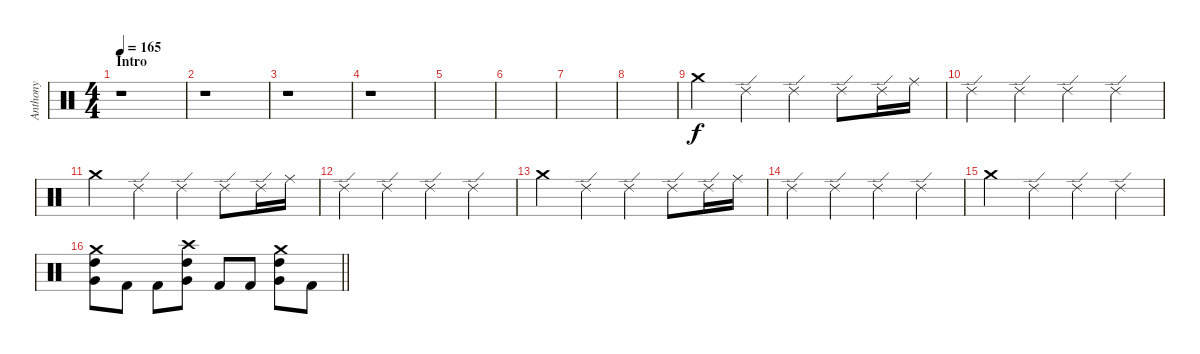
\track ("Anthony" "Anthony") {instrument percussion}
\staff {score}
\articulation defaults
\ts (4 4)
\section ("" "Intro")
\tempo 165
\clef neutral
\ks c
r.1{dy f} |
r.1 |
r.1 |
r.1 |
|
|
|
|
"Crash medium (hit)".4 "Ride (edge) 2".4 "Ride (edge) 2".4 "Ride (edge) 2".8 "Ride (edge) 2".16 "Ride (middle)".16 |
"Ride (edge) 2".4 "Ride (edge) 2".4 "Ride (edge) 2".4 "Ride (edge) 2".4 |
"Crash medium (hit)".4 "Ride (edge) 2".4 "Ride (edge) 2".4 "Ride (edge) 2".8 "Ride (edge) 2".16 "Ride (middle)".16 |
"Ride (edge) 2".4 "Ride (edge) 2".4 "Ride (edge) 2".4 "Ride (edge) 2".4 |
"Crash medium (hit)".4 "Ride (edge) 2".4 "Ride (edge) 2".4 "Ride (edge) 2".8 "Ride (edge) 2".16 "Ride (middle)".16 |
"Ride (edge) 2".4 "Ride (edge) 2".4 "Ride (edge) 2".4 "Ride (edge) 2".4 |
"Crash medium (hit)".4 "Ride (edge) 2".4 "Ride (edge) 2".4 "Ride (edge) 2".4 |
\barLineRight lightlight
("High Tom (hit)" "Very Low Tom (hit)" "Crash medium (hit)").8 "Kick (hit) 2".8 "Kick (hit) 2".8 ("High Tom (hit)" "Very Low Tom (hit)" "Crash high (hit)").8 "Kick (hit) 2".8 "Kick (hit) 2".8 ("High Tom (hit)" "Very Low Tom (hit)" "Crash medium (hit)").8 "Kick (hit) 2".8
